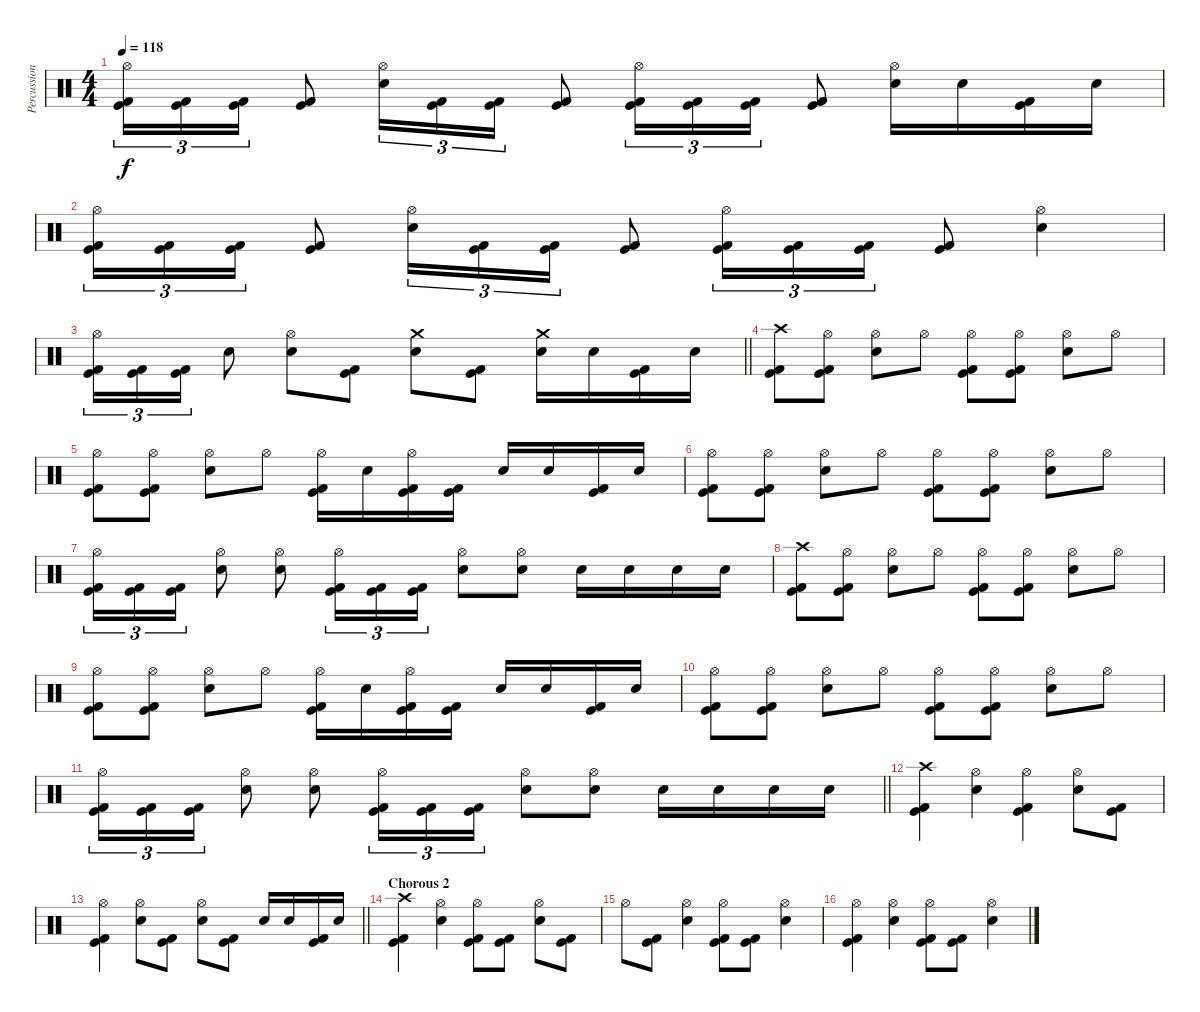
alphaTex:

\track ("Percussion" "Percussion") {instrument percussion}
\staff {score}
\articulation defaults
\ts (4 4)
\tempo 118
\clef neutral
\ks c
("Hi-Hat (open)" "Kick (hit)" "Kick (hit) 2").16{tu (3 2) dy f} ("Kick (hit)" "Kick (hit) 2").16{tu (3 2)} ("Kick (hit)" "Kick (hit) 2").16{tu (3 2)} ("Kick (hit)" "Kick (hit) 2").8 ("Hi-Hat (open)" "Electric Snare (hit)").16{tu (3 2)} ("Kick (hit)" "Kick (hit) 2").16{tu (3 2)} ("Kick (hit)" "Kick (hit) 2").16{tu (3 2)} ("Kick (hit)" "Kick (hit) 2").8 ("Hi-Hat (open)" "Kick (hit)" "Kick (hit) 2").16{tu (3 2)} ("Kick (hit)" "Kick (hit) 2").16{tu (3 2)} ("Kick (hit)" "Kick (hit) 2").16{tu (3 2)} ("Kick (hit)" "Kick (hit) 2").8 ("Hi-Hat (open)" "Electric Snare (hit)").16 "Electric Snare (hit)".16 ("Kick (hit)" "Kick (hit) 2").16 "Electric Snare (hit)".16 |
("Hi-Hat (open)" "Kick (hit)" "Kick (hit) 2").16{tu (3 2)} ("Kick (hit)" "Kick (hit) 2").16{tu (3 2)} ("Kick (hit)" "Kick (hit) 2").16{tu (3 2)} ("Kick (hit)" "Kick (hit) 2").8 ("Hi-Hat (open)" "Electric Snare (hit)").16{tu (3 2)} ("Kick (hit)" "Kick (hit) 2").16{tu (3 2)} ("Kick (hit)" "Kick (hit) 2").16{tu (3 2)} ("Kick (hit)" "Kick (hit) 2").8 ("Hi-Hat (open)" "Kick (hit)" "Kick (hit) 2").16{tu (3 2)} ("Kick (hit)" "Kick (hit) 2").16{tu (3 2)} ("Kick (hit)" "Kick (hit) 2").16{tu (3 2)} ("Kick (hit)" "Kick (hit) 2").8 ("Hi-Hat (open)" "Electric Snare (hit)").4 |
\barLineRight lightlight
("Hi-Hat (open)" "Kick (hit)" "Kick (hit) 2").16{tu (3 2)} ("Kick (hit)" "Kick (hit) 2").16{tu (3 2)} ("Kick (hit)" "Kick (hit) 2").16{tu (3 2)} "Electric Snare (hit)".8 ("Hi-Hat (open)" "Electric Snare (hit)").8 ("Kick (hit)" "Kick (hit) 2").8 ("Crash medium (hit)" "Electric Snare (hit)").8 ("Kick (hit)" "Kick (hit) 2").8 ("Crash medium (hit)" "Electric Snare (hit)").16 "Electric Snare (hit)".16 ("Kick (hit)" "Kick (hit) 2").16 "Electric Snare (hit)".16 |
\section ("" "")
("Crash high (hit)" "Kick (hit)" "Kick (hit) 2").8 ("Hi-Hat (open)" "Kick (hit)" "Kick (hit) 2").8 ("Hi-Hat (open)" "Electric Snare (hit)").8 "Hi-Hat (open)".8 ("Hi-Hat (open)" "Kick (hit)" "Kick (hit) 2").8 ("Hi-Hat (open)" "Kick (hit)" "Kick (hit) 2").8 ("Hi-Hat (open)" "Electric Snare (hit)").8 "Hi-Hat (open)".8 |
("Hi-Hat (open)" "Kick (hit)" "Kick (hit) 2").8 ("Hi-Hat (open)" "Kick (hit)" "Kick (hit) 2").8 ("Hi-Hat (open)" "Electric Snare (hit)").8 "Hi-Hat (open)".8 ("Hi-Hat (open)" "Kick (hit)" "Kick (hit) 2").16 "Electric Snare (hit)".16 ("Hi-Hat (open)" "Kick (hit)" "Kick (hit) 2").16 ("Kick (hit)" "Kick (hit) 2").16 "Electric Snare (hit)".16 "Electric Snare (hit)".16 ("Kick (hit)" "Kick (hit) 2").16 "Electric Snare (hit)".16 |
("Hi-Hat (open)" "Kick (hit)" "Kick (hit) 2").8 ("Hi-Hat (open)" "Kick (hit)" "Kick (hit) 2").8 ("Hi-Hat (open)" "Electric Snare (hit)").8 "Hi-Hat (open)".8 ("Hi-Hat (open)" "Kick (hit)" "Kick (hit) 2").8 ("Hi-Hat (open)" "Kick (hit)" "Kick (hit) 2").8 ("Hi-Hat (open)" "Electric Snare (hit)").8 "Hi-Hat (open)".8 |
("Hi-Hat (open)" "Kick (hit)" "Kick (hit) 2").16{tu (3 2)} ("Kick (hit)" "Kick (hit) 2").16{tu (3 2)} ("Kick (hit)" "Kick (hit) 2").16{tu (3 2)} ("Hi-Hat (open)" "Electric Snare (hit)").8 ("Hi-Hat (open)" "Electric Snare (hit)").8 ("Hi-Hat (open)" "Kick (hit)" "Kick (hit) 2").16{tu (3 2)} ("Kick (hit)" "Kick (hit) 2").16{tu (3 2)} ("Kick (hit)" "Kick (hit) 2").16{tu (3 2)} ("Hi-Hat (open)" "Electric Snare (hit)").8 ("Hi-Hat (open)" "Electric Snare (hit)").8 "Electric Snare (hit)".16 "Electric Snare (hit)".16 "Electric Snare (hit)".16 "Electric Snare (hit)".16 |
("Crash high (hit)" "Kick (hit)" "Kick (hit) 2").8 ("Hi-Hat (open)" "Kick (hit)" "Kick (hit) 2").8 ("Hi-Hat (open)" "Electric Snare (hit)").8 "Hi-Hat (open)".8 ("Hi-Hat (open)" "Kick (hit)" "Kick (hit) 2").8 ("Hi-Hat (open)" "Kick (hit)" "Kick (hit) 2").8 ("Hi-Hat (open)" "Electric Snare (hit)").8 "Hi-Hat (open)".8 |
("Hi-Hat (open)" "Kick (hit)" "Kick (hit) 2").8 ("Hi-Hat (open)" "Kick (hit)" "Kick (hit) 2").8 ("Hi-Hat (open)" "Electric Snare (hit)").8 "Hi-Hat (open)".8 ("Hi-Hat (open)" "Kick (hit)" "Kick (hit) 2").16 "Electric Snare (hit)".16 ("Hi-Hat (open)" "Kick (hit)" "Kick (hit) 2").16 ("Kick (hit)" "Kick (hit) 2").16 "Electric Snare (hit)".16 "Electric Snare (hit)".16 ("Kick (hit)" "Kick (hit) 2").16 "Electric Snare (hit)".16 |
("Hi-Hat (open)" "Kick (hit)" "Kick (hit) 2").8 ("Hi-Hat (open)" "Kick (hit)" "Kick (hit) 2").8 ("Hi-Hat (open)" "Electric Snare (hit)").8 "Hi-Hat (open)".8 ("Hi-Hat (open)" "Kick (hit)" "Kick (hit) 2").8 ("Hi-Hat (open)" "Kick (hit)" "Kick (hit) 2").8 ("Hi-Hat (open)" "Electric Snare (hit)").8 "Hi-Hat (open)".8 |
\barLineRight lightlight
("Hi-Hat (open)" "Kick (hit)" "Kick (hit) 2").16{tu (3 2)} ("Kick (hit)" "Kick (hit) 2").16{tu (3 2)} ("Kick (hit)" "Kick (hit) 2").16{tu (3 2)} ("Hi-Hat (open)" "Electric Snare (hit)").8 ("Hi-Hat (open)" "Electric Snare (hit)").8 ("Hi-Hat (open)" "Kick (hit)" "Kick (hit) 2").16{tu (3 2)} ("Kick (hit)" "Kick (hit) 2").16{tu (3 2)} ("Kick (hit)" "Kick (hit) 2").16{tu (3 2)} ("Hi-Hat (open)" "Electric Snare (hit)").8 ("Hi-Hat (open)" "Electric Snare (hit)").8 "Electric Snare (hit)".16 "Electric Snare (hit)".16 "Electric Snare (hit)".16 "Electric Snare (hit)".16 |
\section ("" "")
("Crash high (hit)" "Kick (hit)" "Kick (hit) 2").4 ("Hi-Hat (open)" "Electric Snare (hit)").4 ("Hi-Hat (open)" "Kick (hit)" "Kick (hit) 2").4 ("Hi-Hat (open)" "Electric Snare (hit)").8 ("Kick (hit)" "Kick (hit) 2").8 |
\barLineRight lightlight
("Hi-Hat (open)" "Kick (hit)" "Kick (hit) 2").4 ("Hi-Hat (open)" "Electric Snare (hit)").8 ("Kick (hit)" "Kick (hit) 2").8 ("Hi-Hat (open)" "Electric Snare (hit)").8 ("Kick (hit)" "Kick (hit) 2").8 "Electric Snare (hit)".16 "Electric Snare (hit)".16 ("Kick (hit)" "Kick (hit) 2").16 "Electric Snare (hit)".16 |
\section ("" "Chorous 2")
("Crash high (hit)" "Kick (hit)" "Kick (hit) 2").4 ("Hi-Hat (open)" "Electric Snare (hit)").4 ("Hi-Hat (open)" "Kick (hit)" "Kick (hit) 2").8 ("Kick (hit)" "Kick (hit) 2").8 ("Hi-Hat (open)" "Electric Snare (hit)").8 ("Kick (hit)" "Kick (hit) 2").8 |
"Hi-Hat (open)".8 ("Kick (hit)" "Kick (hit) 2").8 ("Hi-Hat (open)" "Electric Snare (hit)").4 ("Hi-Hat (open)" "Kick (hit)" "Kick (hit) 2").8 ("Kick (hit)" "Kick (hit) 2").8 ("Hi-Hat (open)" "Electric Snare (hit)").4 |
("Hi-Hat (open)" "Kick (hit)" "Kick (hit) 2").4 ("Hi-Hat (open)" "Electric Snare (hit)").4 ("Hi-Hat (open)" "Kick (hit)" "Kick (hit) 2").8 ("Kick (hit)" "Kick (hit) 2").8 ("Hi-Hat (open)" "Electric Snare (hit)").4
